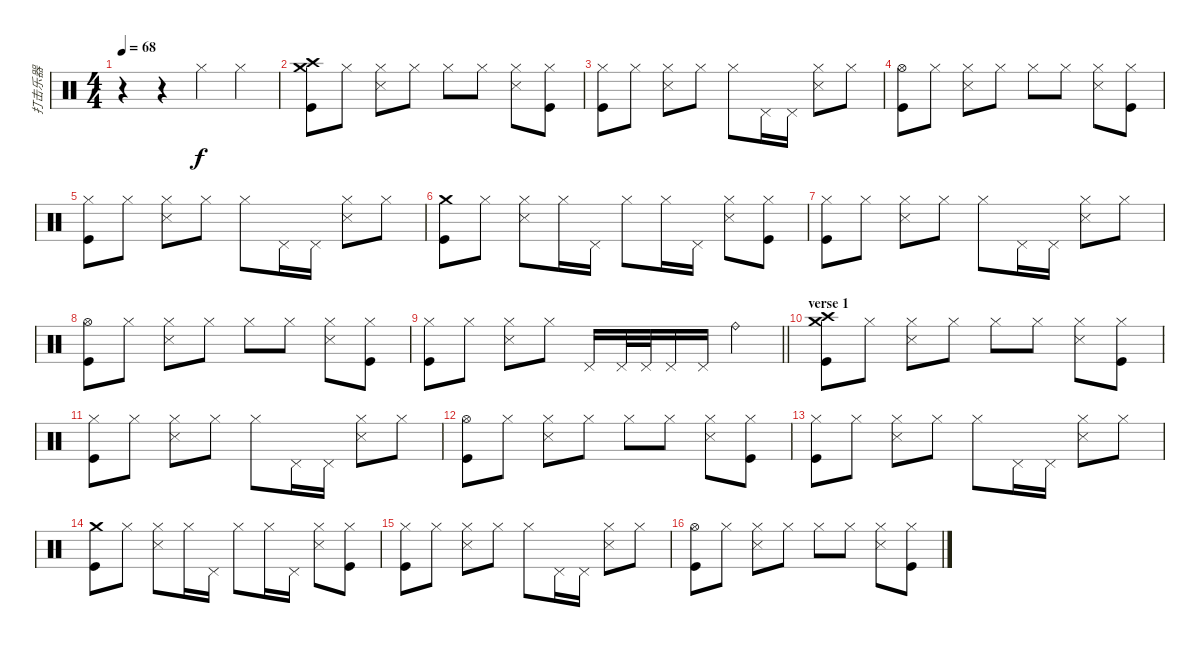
\track ("打击乐器" "打击乐器") {instrument percussion}
\staff {score}
\articulation defaults
\ts (4 4)
\tempo 68
\clef neutral
\ks c
r.4{dy f} r.4 "Hi-Hat (closed)".4 "Hi-Hat (closed)".4 |
("Kick (hit)" "Crash medium (hit)" "Crash high (hit)").8 "Hi-Hat (closed)".8 ("Snare (side stick) 3" "Hi-Hat (closed)").8 "Hi-Hat (closed)".8 "Hi-Hat (closed)".8 "Hi-Hat (closed)".8 ("Snare (side stick) 3" "Hi-Hat (closed)").8 ("Kick (hit)" "Hi-Hat (closed)").8 |
("Kick (hit)" "Hi-Hat (closed)").8 "Hi-Hat (closed)".8 ("Snare (side stick) 3" "Hi-Hat (closed)").8 "Hi-Hat (closed)".8 "Hi-Hat (closed)".8 "Pedal Hi-Hat (hit)".16 "Pedal Hi-Hat (hit)".16 ("Snare (side stick) 3" "Hi-Hat (closed)").8 "Hi-Hat (closed)".8 |
("Kick (hit)" "Hi-Hat (open)").8 "Hi-Hat (closed)".8 ("Snare (side stick) 3" "Hi-Hat (closed)").8 "Hi-Hat (closed)".8 "Hi-Hat (closed)".8 "Hi-Hat (closed)".8 ("Snare (side stick) 3" "Hi-Hat (closed)").8 ("Kick (hit)" "Hi-Hat (closed)").8 |
("Kick (hit)" "Hi-Hat (closed)").8 "Hi-Hat (closed)".8 ("Snare (side stick) 3" "Hi-Hat (closed)").8 "Hi-Hat (closed)".8 "Hi-Hat (closed)".8 "Pedal Hi-Hat (hit)".16 "Pedal Hi-Hat (hit)".16 ("Snare (side stick) 3" "Hi-Hat (closed)").8 "Hi-Hat (closed)".8 |
("Kick (hit)" "Crash medium (hit)").8 "Hi-Hat (closed)".8 ("Snare (side stick) 3" "Hi-Hat (closed)").8 "Hi-Hat (closed)".16 "Pedal Hi-Hat (hit)".16 "Hi-Hat (closed)".8 "Hi-Hat (closed)".16 "Pedal Hi-Hat (hit)".16 ("Snare (side stick) 3" "Hi-Hat (closed)").8 ("Kick (hit)" "Hi-Hat (closed)").8 |
("Kick (hit)" "Hi-Hat (closed)").8 "Hi-Hat (closed)".8 ("Snare (side stick) 3" "Hi-Hat (closed)").8 "Hi-Hat (closed)".8 "Hi-Hat (closed)".8 "Pedal Hi-Hat (hit)".16 "Pedal Hi-Hat (hit)".16 ("Snare (side stick) 3" "Hi-Hat (closed)").8 "Hi-Hat (closed)".8 |
("Kick (hit)" "Hi-Hat (open)").8 "Hi-Hat (closed)".8 ("Snare (side stick) 3" "Hi-Hat (closed)").8 "Hi-Hat (closed)".8 "Hi-Hat (closed)".8 "Hi-Hat (closed)".8 ("Snare (side stick) 3" "Hi-Hat (closed)").8 ("Kick (hit)" "Hi-Hat (closed)").8 |
\barLineRight lightlight
("Kick (hit)" "Hi-Hat (closed)").8 "Hi-Hat (closed)".8 ("Snare (side stick) 3" "Hi-Hat (closed)").8 "Hi-Hat (closed)".8 "Pedal Hi-Hat (hit)".16 "Pedal Hi-Hat (hit)".32 "Pedal Hi-Hat (hit)".32 "Pedal Hi-Hat (hit)".16 "Pedal Hi-Hat (hit)".16 "Ride (bell)".4 |
\section ("" "verse 1")
("Kick (hit)" "Crash medium (hit)" "Crash high (hit)").8 "Hi-Hat (closed)".8 ("Snare (side stick) 3" "Hi-Hat (closed)").8 "Hi-Hat (closed)".8 "Hi-Hat (closed)".8 "Hi-Hat (closed)".8 ("Snare (side stick) 3" "Hi-Hat (closed)").8 ("Kick (hit)" "Hi-Hat (closed)").8 |
("Kick (hit)" "Hi-Hat (closed)").8 "Hi-Hat (closed)".8 ("Snare (side stick) 3" "Hi-Hat (closed)").8 "Hi-Hat (closed)".8 "Hi-Hat (closed)".8 "Pedal Hi-Hat (hit)".16 "Pedal Hi-Hat (hit)".16 ("Snare (side stick) 3" "Hi-Hat (closed)").8 "Hi-Hat (closed)".8 |
("Kick (hit)" "Hi-Hat (open)").8 "Hi-Hat (closed)".8 ("Snare (side stick) 3" "Hi-Hat (closed)").8 "Hi-Hat (closed)".8 "Hi-Hat (closed)".8 "Hi-Hat (closed)".8 ("Snare (side stick) 3" "Hi-Hat (closed)").8 ("Kick (hit)" "Hi-Hat (closed)").8 |
("Kick (hit)" "Hi-Hat (closed)").8 "Hi-Hat (closed)".8 ("Snare (side stick) 3" "Hi-Hat (closed)").8 "Hi-Hat (closed)".8 "Hi-Hat (closed)".8 "Pedal Hi-Hat (hit)".16 "Pedal Hi-Hat (hit)".16 ("Snare (side stick) 3" "Hi-Hat (closed)").8 "Hi-Hat (closed)".8 |
("Kick (hit)" "Crash medium (hit)").8 "Hi-Hat (closed)".8 ("Snare (side stick) 3" "Hi-Hat (closed)").8 "Hi-Hat (closed)".16 "Pedal Hi-Hat (hit)".16 "Hi-Hat (closed)".8 "Hi-Hat (closed)".16 "Pedal Hi-Hat (hit)".16 ("Snare (side stick) 3" "Hi-Hat (closed)").8 ("Kick (hit)" "Hi-Hat (closed)").8 |
("Kick (hit)" "Hi-Hat (closed)").8 "Hi-Hat (closed)".8 ("Snare (side stick) 3" "Hi-Hat (closed)").8 "Hi-Hat (closed)".8 "Hi-Hat (closed)".8 "Pedal Hi-Hat (hit)".16 "Pedal Hi-Hat (hit)".16 ("Snare (side stick) 3" "Hi-Hat (closed)").8 "Hi-Hat (closed)".8 |
("Kick (hit)" "Hi-Hat (open)").8 "Hi-Hat (closed)".8 ("Snare (side stick) 3" "Hi-Hat (closed)").8 "Hi-Hat (closed)".8 "Hi-Hat (closed)".8 "Hi-Hat (closed)".8 ("Snare (side stick) 3" "Hi-Hat (closed)").8 ("Kick (hit)" "Hi-Hat (closed)").8
